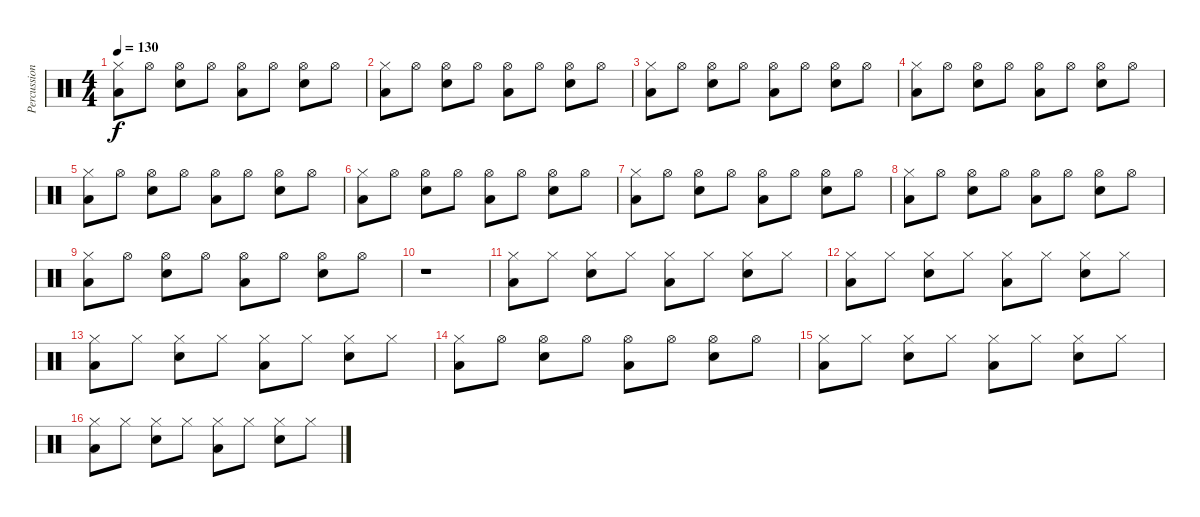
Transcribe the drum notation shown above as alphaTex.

\track ("Percussion" "Percussion") {instrument percussion}
\staff {score}
\articulation defaults
\ts (4 4)
\tempo 130
\clef neutral
\ks c
("Hi-Hat (closed)" "Low Floor Tom (hit)").8{dy f} "Hi-Hat (open)".8 ("Hi-Hat (open)" "Snare (hit) 2").8 "Hi-Hat (open)".8 ("Hi-Hat (open)" "Low Floor Tom (hit)").8 "Hi-Hat (open)".8 ("Hi-Hat (open)" "Snare (hit) 2").8 "Hi-Hat (open)".8 |
("Hi-Hat (closed)" "Low Floor Tom (hit)").8 "Hi-Hat (open)".8 ("Hi-Hat (open)" "Snare (hit) 2").8 "Hi-Hat (open)".8 ("Hi-Hat (open)" "Low Floor Tom (hit)").8 "Hi-Hat (open)".8 ("Hi-Hat (open)" "Snare (hit) 2").8 "Hi-Hat (open)".8 |
("Hi-Hat (closed)" "Low Floor Tom (hit)").8 "Hi-Hat (open)".8 ("Hi-Hat (open)" "Snare (hit) 2").8 "Hi-Hat (open)".8 ("Hi-Hat (open)" "Low Floor Tom (hit)").8 "Hi-Hat (open)".8 ("Hi-Hat (open)" "Snare (hit) 2").8 "Hi-Hat (open)".8 |
("Hi-Hat (closed)" "Low Floor Tom (hit)").8 "Hi-Hat (open)".8 ("Hi-Hat (open)" "Snare (hit) 2").8 "Hi-Hat (open)".8 ("Hi-Hat (open)" "Low Floor Tom (hit)").8 "Hi-Hat (open)".8 ("Hi-Hat (open)" "Snare (hit) 2").8 "Hi-Hat (open)".8 |
("Hi-Hat (closed)" "Low Floor Tom (hit)").8 "Hi-Hat (open)".8 ("Hi-Hat (open)" "Snare (hit) 2").8 "Hi-Hat (open)".8 ("Hi-Hat (open)" "Low Floor Tom (hit)").8 "Hi-Hat (open)".8 ("Hi-Hat (open)" "Snare (hit) 2").8 "Hi-Hat (open)".8 |
("Hi-Hat (closed)" "Low Floor Tom (hit)").8 "Hi-Hat (open)".8 ("Hi-Hat (open)" "Snare (hit) 2").8 "Hi-Hat (open)".8 ("Hi-Hat (open)" "Low Floor Tom (hit)").8 "Hi-Hat (open)".8 ("Hi-Hat (open)" "Snare (hit) 2").8 "Hi-Hat (open)".8 |
("Hi-Hat (closed)" "Low Floor Tom (hit)").8 "Hi-Hat (open)".8 ("Hi-Hat (open)" "Snare (hit) 2").8 "Hi-Hat (open)".8 ("Hi-Hat (open)" "Low Floor Tom (hit)").8 "Hi-Hat (open)".8 ("Hi-Hat (open)" "Snare (hit) 2").8 "Hi-Hat (open)".8 |
("Hi-Hat (closed)" "Low Floor Tom (hit)").8 "Hi-Hat (open)".8 ("Hi-Hat (open)" "Snare (hit) 2").8 "Hi-Hat (open)".8 ("Hi-Hat (open)" "Low Floor Tom (hit)").8 "Hi-Hat (open)".8 ("Hi-Hat (open)" "Snare (hit) 2").8 "Hi-Hat (open)".8 |
("Hi-Hat (closed)" "Low Floor Tom (hit)").8 "Hi-Hat (open)".8 ("Hi-Hat (open)" "Snare (hit) 2").8 "Hi-Hat (open)".8 ("Hi-Hat (open)" "Low Floor Tom (hit)").8 "Hi-Hat (open)".8 ("Hi-Hat (open)" "Snare (hit) 2").8 "Hi-Hat (open)".8 |
r.1 |
("Hi-Hat (closed)" "Low Floor Tom (hit)").8 "Hi-Hat (closed)".8 ("Hi-Hat (closed)" "Snare (hit) 2").8 "Hi-Hat (closed)".8 ("Hi-Hat (closed)" "Low Floor Tom (hit)").8 "Hi-Hat (closed)".8 ("Hi-Hat (closed)" "Snare (hit) 2").8 "Hi-Hat (closed)".8 |
("Hi-Hat (closed)" "Low Floor Tom (hit)").8 "Hi-Hat (closed)".8 ("Hi-Hat (closed)" "Snare (hit) 2").8 "Hi-Hat (closed)".8 ("Hi-Hat (closed)" "Low Floor Tom (hit)").8 "Hi-Hat (closed)".8 ("Hi-Hat (closed)" "Snare (hit) 2").8 "Hi-Hat (closed)".8 |
("Hi-Hat (closed)" "Low Floor Tom (hit)").8 "Hi-Hat (closed)".8 ("Hi-Hat (closed)" "Snare (hit) 2").8 "Hi-Hat (closed)".8 ("Hi-Hat (closed)" "Low Floor Tom (hit)").8 "Hi-Hat (closed)".8 ("Hi-Hat (closed)" "Snare (hit) 2").8 "Hi-Hat (closed)".8 |
("Hi-Hat (closed)" "Low Floor Tom (hit)").8 "Hi-Hat (open)".8 ("Hi-Hat (open)" "Snare (hit) 2").8 "Hi-Hat (open)".8 ("Hi-Hat (open)" "Low Floor Tom (hit)").8 "Hi-Hat (open)".8 ("Hi-Hat (open)" "Snare (hit) 2").8 "Hi-Hat (open)".8 |
("Hi-Hat (closed)" "Low Floor Tom (hit)").8 "Hi-Hat (closed)".8 ("Hi-Hat (closed)" "Snare (hit) 2").8 "Hi-Hat (closed)".8 ("Hi-Hat (closed)" "Low Floor Tom (hit)").8 "Hi-Hat (closed)".8 ("Hi-Hat (closed)" "Snare (hit) 2").8 "Hi-Hat (closed)".8 |
("Hi-Hat (closed)" "Low Floor Tom (hit)").8 "Hi-Hat (closed)".8 ("Hi-Hat (closed)" "Snare (hit) 2").8 "Hi-Hat (closed)".8 ("Hi-Hat (closed)" "Low Floor Tom (hit)").8 "Hi-Hat (closed)".8 ("Hi-Hat (closed)" "Snare (hit) 2").8 "Hi-Hat (closed)".8
